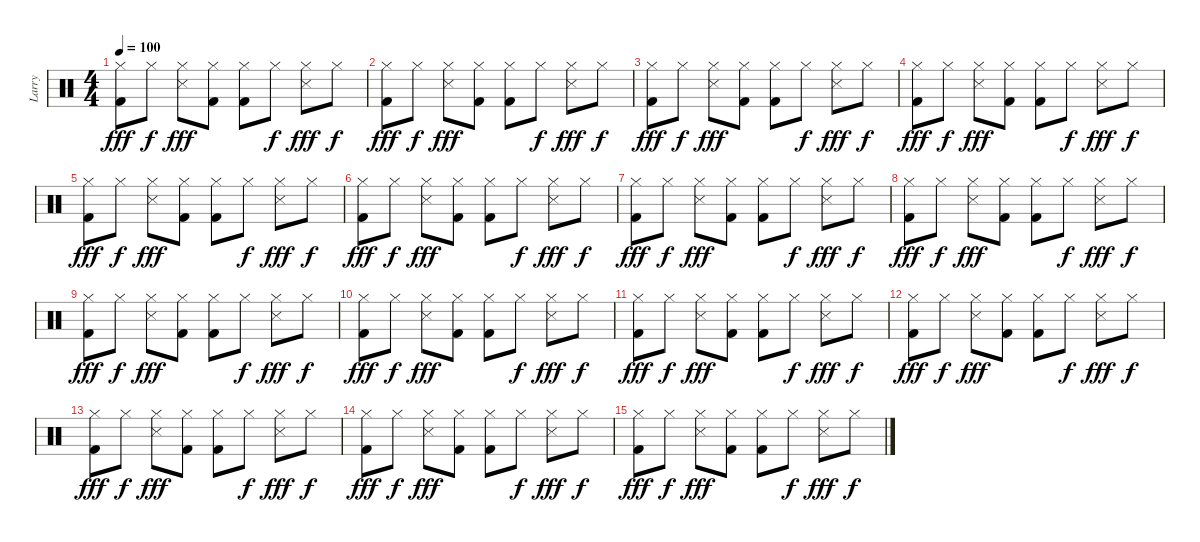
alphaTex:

\track ("Larry" "Larry") {instrument percussion}
\staff {score}
\articulation defaults
\ts (4 4)
\tempo 100
\clef neutral
\ks c
("Hi-Hat (closed)" "Kick (hit) 2").8{dy fff} "Hi-Hat (closed)".8{dy f} ("Hi-Hat (closed)" "Snare (side stick) 3").8{dy fff} ("Hi-Hat (closed)" "Kick (hit) 2").8 ("Hi-Hat (closed)" "Kick (hit) 2").8 "Hi-Hat (closed)".8{dy f} ("Hi-Hat (closed)" "Snare (side stick) 3").8{dy fff} "Hi-Hat (closed)".8{dy f} |
("Kick (hit) 2" "Hi-Hat (closed)").8{dy fff} "Hi-Hat (closed)".8{dy f} ("Snare (side stick) 3" "Hi-Hat (closed)").8{dy fff} ("Kick (hit) 2" "Hi-Hat (closed)").8 ("Kick (hit) 2" "Hi-Hat (closed)").8 "Hi-Hat (closed)".8{dy f} ("Snare (side stick) 3" "Hi-Hat (closed)").8{dy fff} "Hi-Hat (closed)".8{dy f} |
("Hi-Hat (closed)" "Kick (hit) 2").8{dy fff} "Hi-Hat (closed)".8{dy f} ("Hi-Hat (closed)" "Snare (side stick) 3").8{dy fff} ("Hi-Hat (closed)" "Kick (hit) 2").8 ("Hi-Hat (closed)" "Kick (hit) 2").8 "Hi-Hat (closed)".8{dy f} ("Hi-Hat (closed)" "Snare (side stick) 3").8{dy fff} "Hi-Hat (closed)".8{dy f} |
("Kick (hit) 2" "Hi-Hat (closed)").8{dy fff} "Hi-Hat (closed)".8{dy f} ("Snare (side stick) 3" "Hi-Hat (closed)").8{dy fff} ("Kick (hit) 2" "Hi-Hat (closed)").8 ("Kick (hit) 2" "Hi-Hat (closed)").8 "Hi-Hat (closed)".8{dy f} ("Snare (side stick) 3" "Hi-Hat (closed)").8{dy fff} "Hi-Hat (closed)".8{dy f} |
("Hi-Hat (closed)" "Kick (hit) 2").8{dy fff} "Hi-Hat (closed)".8{dy f} ("Hi-Hat (closed)" "Snare (side stick) 3").8{dy fff} ("Hi-Hat (closed)" "Kick (hit) 2").8 ("Hi-Hat (closed)" "Kick (hit) 2").8 "Hi-Hat (closed)".8{dy f} ("Hi-Hat (closed)" "Snare (side stick) 3").8{dy fff} "Hi-Hat (closed)".8{dy f} |
("Kick (hit) 2" "Hi-Hat (closed)").8{dy fff} "Hi-Hat (closed)".8{dy f} ("Snare (side stick) 3" "Hi-Hat (closed)").8{dy fff} ("Kick (hit) 2" "Hi-Hat (closed)").8 ("Kick (hit) 2" "Hi-Hat (closed)").8 "Hi-Hat (closed)".8{dy f} ("Snare (side stick) 3" "Hi-Hat (closed)").8{dy fff} "Hi-Hat (closed)".8{dy f} |
("Hi-Hat (closed)" "Kick (hit) 2").8{dy fff} "Hi-Hat (closed)".8{dy f} ("Hi-Hat (closed)" "Snare (side stick) 3").8{dy fff} ("Hi-Hat (closed)" "Kick (hit) 2").8 ("Hi-Hat (closed)" "Kick (hit) 2").8 "Hi-Hat (closed)".8{dy f} ("Hi-Hat (closed)" "Snare (side stick) 3").8{dy fff} "Hi-Hat (closed)".8{dy f} |
("Kick (hit) 2" "Hi-Hat (closed)").8{dy fff} "Hi-Hat (closed)".8{dy f} ("Snare (side stick) 3" "Hi-Hat (closed)").8{dy fff} ("Kick (hit) 2" "Hi-Hat (closed)").8 ("Kick (hit) 2" "Hi-Hat (closed)").8 "Hi-Hat (closed)".8{dy f} ("Snare (side stick) 3" "Hi-Hat (closed)").8{dy fff} "Hi-Hat (closed)".8{dy f} |
("Hi-Hat (closed)" "Kick (hit) 2").8{dy fff} "Hi-Hat (closed)".8{dy f} ("Hi-Hat (closed)" "Snare (side stick) 3").8{dy fff} ("Hi-Hat (closed)" "Kick (hit) 2").8 ("Hi-Hat (closed)" "Kick (hit) 2").8 "Hi-Hat (closed)".8{dy f} ("Hi-Hat (closed)" "Snare (side stick) 3").8{dy fff} "Hi-Hat (closed)".8{dy f} |
("Kick (hit) 2" "Hi-Hat (closed)").8{dy fff} "Hi-Hat (closed)".8{dy f} ("Snare (side stick) 3" "Hi-Hat (closed)").8{dy fff} ("Kick (hit) 2" "Hi-Hat (closed)").8 ("Kick (hit) 2" "Hi-Hat (closed)").8 "Hi-Hat (closed)".8{dy f} ("Snare (side stick) 3" "Hi-Hat (closed)").8{dy fff} "Hi-Hat (closed)".8{dy f} |
("Hi-Hat (closed)" "Kick (hit) 2").8{dy fff} "Hi-Hat (closed)".8{dy f} ("Hi-Hat (closed)" "Snare (side stick) 3").8{dy fff} ("Hi-Hat (closed)" "Kick (hit) 2").8 ("Hi-Hat (closed)" "Kick (hit) 2").8 "Hi-Hat (closed)".8{dy f} ("Hi-Hat (closed)" "Snare (side stick) 3").8{dy fff} "Hi-Hat (closed)".8{dy f} |
("Kick (hit) 2" "Hi-Hat (closed)").8{dy fff volume 0} "Hi-Hat (closed)".8{dy f} ("Snare (side stick) 3" "Hi-Hat (closed)").8{dy fff} ("Kick (hit) 2" "Hi-Hat (closed)").8 ("Kick (hit) 2" "Hi-Hat (closed)").8 "Hi-Hat (closed)".8{dy f} ("Snare (side stick) 3" "Hi-Hat (closed)").8{dy fff} "Hi-Hat (closed)".8{dy f} |
("Hi-Hat (closed)" "Kick (hit) 2").8{dy fff} "Hi-Hat (closed)".8{dy f} ("Hi-Hat (closed)" "Snare (side stick) 3").8{dy fff} ("Hi-Hat (closed)" "Kick (hit) 2").8 ("Hi-Hat (closed)" "Kick (hit) 2").8 "Hi-Hat (closed)".8{dy f} ("Hi-Hat (closed)" "Snare (side stick) 3").8{dy fff} "Hi-Hat (closed)".8{dy f} |
("Kick (hit) 2" "Hi-Hat (closed)").8{dy fff} "Hi-Hat (closed)".8{dy f} ("Snare (side stick) 3" "Hi-Hat (closed)").8{dy fff} ("Kick (hit) 2" "Hi-Hat (closed)").8 ("Kick (hit) 2" "Hi-Hat (closed)").8 "Hi-Hat (closed)".8{dy f} ("Snare (side stick) 3" "Hi-Hat (closed)").8{dy fff} "Hi-Hat (closed)".8{dy f} |
("Hi-Hat (closed)" "Kick (hit) 2").8{dy fff} "Hi-Hat (closed)".8{dy f} ("Hi-Hat (closed)" "Snare (side stick) 3").8{dy fff} ("Hi-Hat (closed)" "Kick (hit) 2").8 ("Hi-Hat (closed)" "Kick (hit) 2").8 "Hi-Hat (closed)".8{dy f} ("Hi-Hat (closed)" "Snare (side stick) 3").8{dy fff} "Hi-Hat (closed)".8{dy f}
